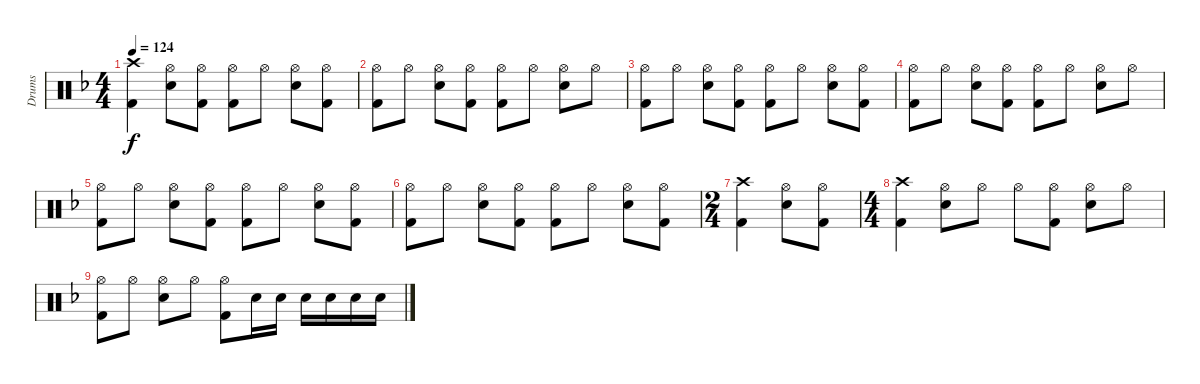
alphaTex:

\track ("Drums" "Drums") {instrument percussion}
\staff {score}
\articulation defaults
\ts (4 4)
\tempo 124
\clef neutral
\ks dminor
("Kick (hit) 2" "Crash high (hit)").4{dy f} ("Snare (hit) 2" "Hi-Hat (open)").8 ("Kick (hit) 2" "Hi-Hat (open)").8 ("Kick (hit) 2" "Hi-Hat (open)").8 "Hi-Hat (open)".8 ("Snare (hit) 2" "Hi-Hat (open)").8 ("Kick (hit) 2" "Hi-Hat (open)").8 |
("Kick (hit) 2" "Hi-Hat (open)").8 "Hi-Hat (open)".8 ("Snare (hit) 2" "Hi-Hat (open)").8 ("Kick (hit) 2" "Hi-Hat (open)").8 ("Kick (hit) 2" "Hi-Hat (open)").8 "Hi-Hat (open)".8 ("Snare (hit) 2" "Hi-Hat (open)").8 "Hi-Hat (open)".8 |
("Kick (hit) 2" "Hi-Hat (open)").8 "Hi-Hat (open)".8 ("Snare (hit) 2" "Hi-Hat (open)").8 ("Kick (hit) 2" "Hi-Hat (open)").8 ("Kick (hit) 2" "Hi-Hat (open)").8 "Hi-Hat (open)".8 ("Snare (hit) 2" "Hi-Hat (open)").8 ("Kick (hit) 2" "Hi-Hat (open)").8 |
("Kick (hit) 2" "Hi-Hat (open)").8 "Hi-Hat (open)".8 ("Snare (hit) 2" "Hi-Hat (open)").8 ("Kick (hit) 2" "Hi-Hat (open)").8 ("Kick (hit) 2" "Hi-Hat (open)").8 "Hi-Hat (open)".8 ("Snare (hit) 2" "Hi-Hat (open)").8 "Hi-Hat (open)".8 |
("Kick (hit) 2" "Hi-Hat (open)").8 "Hi-Hat (open)".8 ("Snare (hit) 2" "Hi-Hat (open)").8 ("Kick (hit) 2" "Hi-Hat (open)").8 ("Kick (hit) 2" "Hi-Hat (open)").8 "Hi-Hat (open)".8 ("Snare (hit) 2" "Hi-Hat (open)").8 ("Kick (hit) 2" "Hi-Hat (open)").8 |
("Kick (hit) 2" "Hi-Hat (open)").8 "Hi-Hat (open)".8 ("Snare (hit) 2" "Hi-Hat (open)").8 ("Kick (hit) 2" "Hi-Hat (open)").8 ("Kick (hit) 2" "Hi-Hat (open)").8 "Hi-Hat (open)".8 ("Snare (hit) 2" "Hi-Hat (open)").8 ("Kick (hit) 2" "Hi-Hat (open)").8 |
\ts (2 4)
("Kick (hit) 2" "Crash high (hit)").4 ("Snare (hit) 2" "Hi-Hat (open)").8 ("Kick (hit) 2" "Hi-Hat (open)").8 |
\ts (4 4)
("Kick (hit) 2" "Crash high (hit)").4 ("Snare (hit) 2" "Hi-Hat (open)").8 "Hi-Hat (open)".8 "Hi-Hat (open)".8 ("Kick (hit) 2" "Hi-Hat (open)").8 ("Snare (hit) 2" "Hi-Hat (open)").8 "Hi-Hat (open)".8 |
("Kick (hit) 2" "Hi-Hat (open)").8 "Hi-Hat (open)".8 ("Snare (hit) 2" "Hi-Hat (open)").8 "Hi-Hat (open)".8 ("Kick (hit) 2" "Hi-Hat (open)").8 "Snare (hit) 2".16 "Snare (hit) 2".16 "Snare (hit) 2".16 "Snare (hit) 2".16 "Snare (hit) 2".16 "Snare (hit) 2".16
